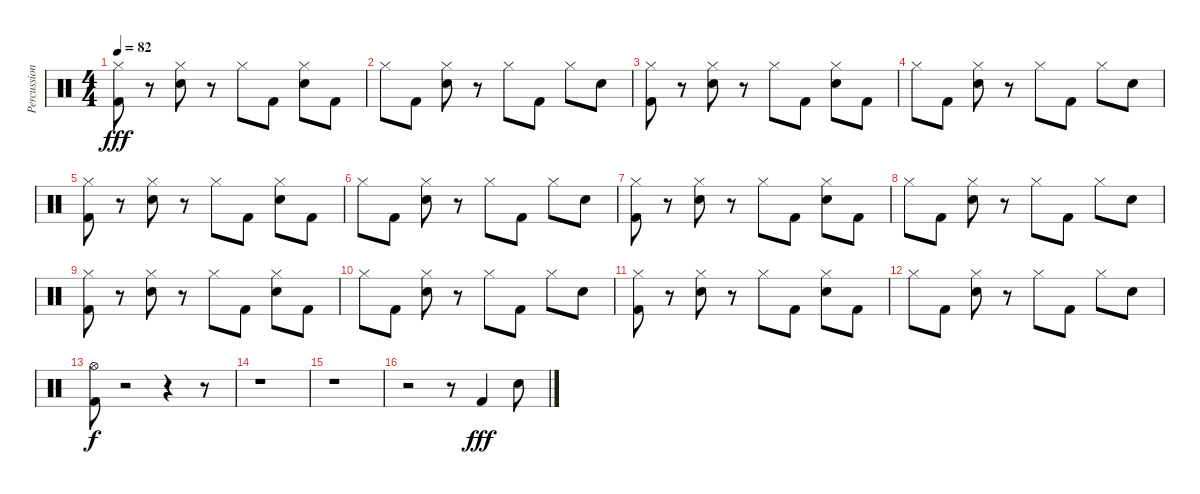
\track ("Percussion" "Percussion") {instrument percussion}
\staff {score}
\articulation defaults
\ts (4 4)
\tempo 82
\clef neutral
\ks c
("Hi-Hat (closed)" "Kick (hit) 2").8{dy fff} r.8 ("Hi-Hat (closed)" "Electric Snare (hit)").8 r.8 "Hi-Hat (closed)".8 "Kick (hit) 2".8 ("Hi-Hat (closed)" "Electric Snare (hit)").8 "Kick (hit) 2".8 |
"Hi-Hat (closed)".8 "Kick (hit) 2".8 ("Hi-Hat (closed)" "Electric Snare (hit)").8 r.8 "Hi-Hat (closed)".8 "Kick (hit) 2".8 "Hi-Hat (closed)".8 "Electric Snare (hit)".8 |
("Hi-Hat (closed)" "Kick (hit) 2").8 r.8 ("Hi-Hat (closed)" "Electric Snare (hit)").8 r.8 "Hi-Hat (closed)".8 "Kick (hit) 2".8 ("Hi-Hat (closed)" "Electric Snare (hit)").8 "Kick (hit) 2".8 |
"Hi-Hat (closed)".8 "Kick (hit) 2".8 ("Hi-Hat (closed)" "Electric Snare (hit)").8 r.8 "Hi-Hat (closed)".8 "Kick (hit) 2".8 "Hi-Hat (closed)".8 "Electric Snare (hit)".8 |
("Hi-Hat (closed)" "Kick (hit) 2").8 r.8 ("Hi-Hat (closed)" "Electric Snare (hit)").8 r.8 "Hi-Hat (closed)".8 "Kick (hit) 2".8 ("Hi-Hat (closed)" "Electric Snare (hit)").8 "Kick (hit) 2".8 |
"Hi-Hat (closed)".8 "Kick (hit) 2".8 ("Hi-Hat (closed)" "Electric Snare (hit)").8 r.8 "Hi-Hat (closed)".8 "Kick (hit) 2".8 "Hi-Hat (closed)".8 "Electric Snare (hit)".8 |
("Hi-Hat (closed)" "Kick (hit) 2").8 r.8 ("Hi-Hat (closed)" "Electric Snare (hit)").8 r.8 "Hi-Hat (closed)".8 "Kick (hit) 2".8 ("Hi-Hat (closed)" "Electric Snare (hit)").8 "Kick (hit) 2".8 |
"Hi-Hat (closed)".8 "Kick (hit) 2".8 ("Hi-Hat (closed)" "Electric Snare (hit)").8 r.8 "Hi-Hat (closed)".8 "Kick (hit) 2".8 "Hi-Hat (closed)".8 "Electric Snare (hit)".8 |
("Hi-Hat (closed)" "Kick (hit) 2").8 r.8 ("Hi-Hat (closed)" "Electric Snare (hit)").8 r.8 "Hi-Hat (closed)".8 "Kick (hit) 2".8 ("Hi-Hat (closed)" "Electric Snare (hit)").8 "Kick (hit) 2".8 |
"Hi-Hat (closed)".8 "Kick (hit) 2".8 ("Hi-Hat (closed)" "Electric Snare (hit)").8 r.8 "Hi-Hat (closed)".8 "Kick (hit) 2".8 "Hi-Hat (closed)".8 "Electric Snare (hit)".8 |
("Hi-Hat (closed)" "Kick (hit) 2").8 r.8 ("Hi-Hat (closed)" "Electric Snare (hit)").8 r.8 "Hi-Hat (closed)".8 "Kick (hit) 2".8 ("Hi-Hat (closed)" "Electric Snare (hit)").8 "Kick (hit) 2".8 |
"Hi-Hat (closed)".8 "Kick (hit) 2".8 ("Hi-Hat (closed)" "Electric Snare (hit)").8 r.8 "Hi-Hat (closed)".8 "Kick (hit) 2".8 "Hi-Hat (closed)".8 "Electric Snare (hit)".8 |
("Kick (hit) 2" "Hi-Hat (open)").8{dy f} r.2 r.4 r.8 |
r.1 |
r.1 |
r.2 r.8 "Kick (hit) 2".4{dy fff} "Electric Snare (hit)".8
